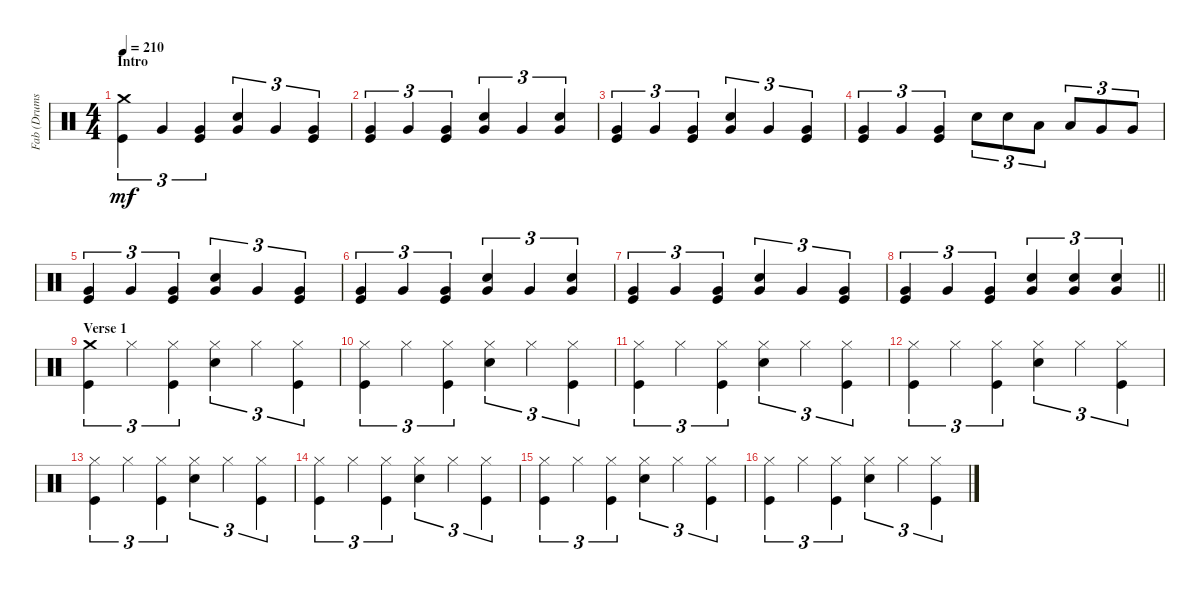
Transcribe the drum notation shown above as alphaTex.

\track ("Fab (Drums)" "Fab (Drums") {instrument percussion}
\staff {score}
\articulation defaults
\ts (4 4)
\section ("" "Intro")
\tempo 210
\clef neutral
\ks c
("Kick (hit)" "Crash medium (hit)").4{tu (3 2) dy mf} "Very Low Tom (hit)".4{tu (3 2)} ("Very Low Tom (hit)" "Kick (hit)").4{tu (3 2)} ("Very Low Tom (hit)" "Snare (hit) 2").4{tu (3 2)} "Very Low Tom (hit)".4{tu (3 2)} ("Very Low Tom (hit)" "Kick (hit)").4{tu (3 2)} |
("Kick (hit)" "Very Low Tom (hit)").4{tu (3 2)} "Very Low Tom (hit)".4{tu (3 2)} ("Very Low Tom (hit)" "Kick (hit)").4{tu (3 2)} ("Very Low Tom (hit)" "Snare (hit) 2").4{tu (3 2)} "Very Low Tom (hit)".4{tu (3 2)} ("Very Low Tom (hit)" "Snare (hit) 2").4{tu (3 2)} |
("Kick (hit)" "Very Low Tom (hit)").4{tu (3 2)} "Very Low Tom (hit)".4{tu (3 2)} ("Very Low Tom (hit)" "Kick (hit)").4{tu (3 2)} ("Very Low Tom (hit)" "Snare (hit) 2").4{tu (3 2)} "Very Low Tom (hit)".4{tu (3 2)} ("Very Low Tom (hit)" "Kick (hit)").4{tu (3 2)} |
("Kick (hit)" "Very Low Tom (hit)").4{tu (3 2)} "Very Low Tom (hit)".4{tu (3 2)} ("Very Low Tom (hit)" "Kick (hit)").4{tu (3 2)} "Snare (hit) 2".8{tu (3 2)} "Snare (hit) 2".8{tu (3 2)} "Low Tom (hit)".8{tu (3 2)} "Low Tom (hit)".8{tu (3 2)} "Very Low Tom (hit)".8{tu (3 2)} "Very Low Tom (hit)".8{tu (3 2)} |
("Kick (hit)" "Very Low Tom (hit)").4{tu (3 2)} "Very Low Tom (hit)".4{tu (3 2)} ("Very Low Tom (hit)" "Kick (hit)").4{tu (3 2)} ("Very Low Tom (hit)" "Snare (hit) 2").4{tu (3 2)} "Very Low Tom (hit)".4{tu (3 2)} ("Very Low Tom (hit)" "Kick (hit)").4{tu (3 2)} |
("Kick (hit)" "Very Low Tom (hit)").4{tu (3 2)} "Very Low Tom (hit)".4{tu (3 2)} ("Very Low Tom (hit)" "Kick (hit)").4{tu (3 2)} ("Very Low Tom (hit)" "Snare (hit) 2").4{tu (3 2)} "Very Low Tom (hit)".4{tu (3 2)} ("Very Low Tom (hit)" "Snare (hit) 2").4{tu (3 2)} |
("Kick (hit)" "Very Low Tom (hit)").4{tu (3 2)} "Very Low Tom (hit)".4{tu (3 2)} ("Very Low Tom (hit)" "Kick (hit)").4{tu (3 2)} ("Very Low Tom (hit)" "Snare (hit) 2").4{tu (3 2)} "Very Low Tom (hit)".4{tu (3 2)} ("Very Low Tom (hit)" "Kick (hit)").4{tu (3 2)} |
\barLineRight lightlight
("Kick (hit)" "Very Low Tom (hit)").4{tu (3 2)} "Very Low Tom (hit)".4{tu (3 2)} ("Very Low Tom (hit)" "Kick (hit)").4{tu (3 2)} ("Very Low Tom (hit)" "Snare (hit) 2").4{tu (3 2)} ("Very Low Tom (hit)" "Snare (hit) 2").4{tu (3 2)} ("Very Low Tom (hit)" "Snare (hit) 2").4{tu (3 2)} |
\section ("" "Verse 1")
("Kick (hit)" "Crash medium (hit)").4{tu (3 2)} "Hi-Hat (closed)".4{tu (3 2)} ("Hi-Hat (closed)" "Kick (hit)").4{tu (3 2)} ("Hi-Hat (closed)" "Snare (hit) 2").4{tu (3 2)} "Hi-Hat (closed)".4{tu (3 2)} ("Hi-Hat (closed)" "Kick (hit)").4{tu (3 2)} |
("Kick (hit)" "Hi-Hat (closed)").4{tu (3 2)} "Hi-Hat (closed)".4{tu (3 2)} ("Hi-Hat (closed)" "Kick (hit)").4{tu (3 2)} ("Hi-Hat (closed)" "Snare (hit) 2").4{tu (3 2)} "Hi-Hat (closed)".4{tu (3 2)} ("Hi-Hat (closed)" "Kick (hit)").4{tu (3 2)} |
("Kick (hit)" "Hi-Hat (closed)").4{tu (3 2)} "Hi-Hat (closed)".4{tu (3 2)} ("Hi-Hat (closed)" "Kick (hit)").4{tu (3 2)} ("Hi-Hat (closed)" "Snare (hit) 2").4{tu (3 2)} "Hi-Hat (closed)".4{tu (3 2)} ("Hi-Hat (closed)" "Kick (hit)").4{tu (3 2)} |
("Kick (hit)" "Hi-Hat (closed)").4{tu (3 2)} "Hi-Hat (closed)".4{tu (3 2)} ("Hi-Hat (closed)" "Kick (hit)").4{tu (3 2)} ("Hi-Hat (closed)" "Snare (hit) 2").4{tu (3 2)} "Hi-Hat (closed)".4{tu (3 2)} ("Hi-Hat (closed)" "Kick (hit)").4{tu (3 2)} |
("Kick (hit)" "Hi-Hat (closed)").4{tu (3 2)} "Hi-Hat (closed)".4{tu (3 2)} ("Hi-Hat (closed)" "Kick (hit)").4{tu (3 2)} ("Hi-Hat (closed)" "Snare (hit) 2").4{tu (3 2)} "Hi-Hat (closed)".4{tu (3 2)} ("Hi-Hat (closed)" "Kick (hit)").4{tu (3 2)} |
("Kick (hit)" "Hi-Hat (closed)").4{tu (3 2)} "Hi-Hat (closed)".4{tu (3 2)} ("Hi-Hat (closed)" "Kick (hit)").4{tu (3 2)} ("Hi-Hat (closed)" "Snare (hit) 2").4{tu (3 2)} "Hi-Hat (closed)".4{tu (3 2)} ("Hi-Hat (closed)" "Kick (hit)").4{tu (3 2)} |
("Kick (hit)" "Hi-Hat (closed)").4{tu (3 2)} "Hi-Hat (closed)".4{tu (3 2)} ("Hi-Hat (closed)" "Kick (hit)").4{tu (3 2)} ("Hi-Hat (closed)" "Snare (hit) 2").4{tu (3 2)} "Hi-Hat (closed)".4{tu (3 2)} ("Hi-Hat (closed)" "Kick (hit)").4{tu (3 2)} |
("Kick (hit)" "Hi-Hat (closed)").4{tu (3 2)} "Hi-Hat (closed)".4{tu (3 2)} ("Hi-Hat (closed)" "Kick (hit)").4{tu (3 2)} ("Hi-Hat (closed)" "Snare (hit) 2").4{tu (3 2)} "Hi-Hat (closed)".4{tu (3 2)} ("Hi-Hat (closed)" "Kick (hit)").4{tu (3 2)}
